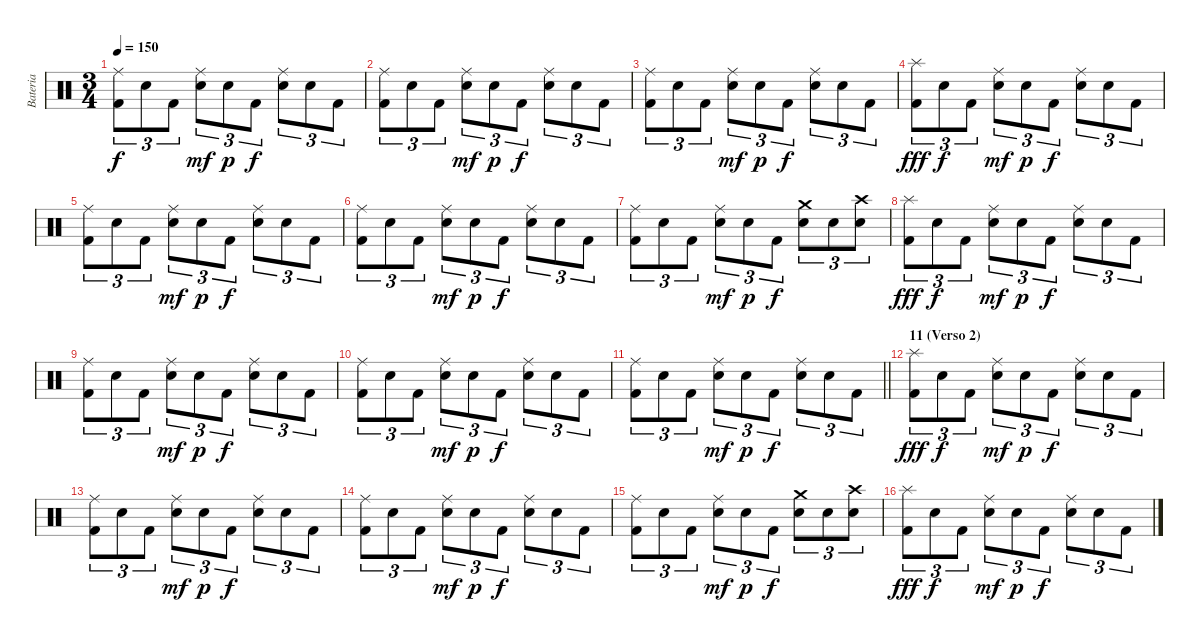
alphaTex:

\track ("Bateria" "Bateria") {instrument percussion}
\staff {score}
\articulation defaults
\ts (3 4)
\tempo 150
\clef neutral
\ks c
("Ride (middle)" "Kick (hit) 2").8{tu (3 2) dy f} "Snare (hit)".8{tu (3 2)} "Kick (hit) 2".8{tu (3 2)} ("Ride (middle)" "Electric Snare (hit)").8{tu (3 2) dy mf} "Electric Snare (hit)".8{tu (3 2) dy p} "Kick (hit) 2".8{tu (3 2) dy f} ("Ride (middle)" "Electric Snare (hit)").8{tu (3 2)} "Snare (hit)".8{tu (3 2)} "Kick (hit) 2".8{tu (3 2)} |
("Ride (middle)" "Kick (hit) 2").8{tu (3 2)} "Snare (hit)".8{tu (3 2)} "Kick (hit) 2".8{tu (3 2)} ("Ride (middle)" "Electric Snare (hit)").8{tu (3 2) dy mf} "Electric Snare (hit)".8{tu (3 2) dy p} "Kick (hit) 2".8{tu (3 2) dy f} ("Ride (middle)" "Electric Snare (hit)").8{tu (3 2)} "Snare (hit)".8{tu (3 2)} "Kick (hit) 2".8{tu (3 2)} |
("Ride (middle)" "Kick (hit) 2").8{tu (3 2)} "Snare (hit)".8{tu (3 2)} "Kick (hit) 2".8{tu (3 2)} ("Ride (middle)" "Electric Snare (hit)").8{tu (3 2) dy mf} "Electric Snare (hit)".8{tu (3 2) dy p} "Kick (hit) 2".8{tu (3 2) dy f} ("Ride (middle)" "Electric Snare (hit)").8{tu (3 2)} "Snare (hit)".8{tu (3 2)} "Kick (hit) 2".8{tu (3 2)} |
("Splash (hit)" "Kick (hit) 2").8{tu (3 2) dy fff} "Snare (hit)".8{tu (3 2) dy f} "Kick (hit) 2".8{tu (3 2)} ("Ride (middle)" "Electric Snare (hit)").8{tu (3 2) dy mf} "Electric Snare (hit)".8{tu (3 2) dy p} "Kick (hit) 2".8{tu (3 2) dy f} ("Ride (middle)" "Electric Snare (hit)").8{tu (3 2)} "Snare (hit)".8{tu (3 2)} "Kick (hit) 2".8{tu (3 2)} |
("Ride (middle)" "Kick (hit) 2").8{tu (3 2)} "Snare (hit)".8{tu (3 2)} "Kick (hit) 2".8{tu (3 2)} ("Ride (middle)" "Electric Snare (hit)").8{tu (3 2) dy mf} "Electric Snare (hit)".8{tu (3 2) dy p} "Kick (hit) 2".8{tu (3 2) dy f} ("Ride (middle)" "Electric Snare (hit)").8{tu (3 2)} "Snare (hit)".8{tu (3 2)} "Kick (hit) 2".8{tu (3 2)} |
("Ride (middle)" "Kick (hit) 2").8{tu (3 2)} "Snare (hit)".8{tu (3 2)} "Kick (hit) 2".8{tu (3 2)} ("Ride (middle)" "Electric Snare (hit)").8{tu (3 2) dy mf} "Electric Snare (hit)".8{tu (3 2) dy p} "Kick (hit) 2".8{tu (3 2) dy f} ("Ride (middle)" "Electric Snare (hit)").8{tu (3 2)} "Snare (hit)".8{tu (3 2)} "Kick (hit) 2".8{tu (3 2)} |
("Ride (middle)" "Kick (hit) 2").8{tu (3 2)} "Snare (hit)".8{tu (3 2)} "Kick (hit) 2".8{tu (3 2)} ("Ride (middle)" "Electric Snare (hit)").8{tu (3 2) dy mf} "Electric Snare (hit)".8{tu (3 2) dy p} "Kick (hit) 2".8{tu (3 2) dy f} ("Crash medium (hit)" "Electric Snare (hit)").8{tu (3 2)} "Snare (hit)".8{tu (3 2)} ("Crash high (hit)" "Electric Snare (hit)").8{tu (3 2)} |
("Splash (hit)" "Kick (hit) 2").8{tu (3 2) dy fff} "Snare (hit)".8{tu (3 2) dy f} "Kick (hit) 2".8{tu (3 2)} ("Ride (middle)" "Electric Snare (hit)").8{tu (3 2) dy mf} "Electric Snare (hit)".8{tu (3 2) dy p} "Kick (hit) 2".8{tu (3 2) dy f} ("Ride (middle)" "Electric Snare (hit)").8{tu (3 2)} "Snare (hit)".8{tu (3 2)} "Kick (hit) 2".8{tu (3 2)} |
("Ride (middle)" "Kick (hit) 2").8{tu (3 2)} "Snare (hit)".8{tu (3 2)} "Kick (hit) 2".8{tu (3 2)} ("Ride (middle)" "Electric Snare (hit)").8{tu (3 2) dy mf} "Electric Snare (hit)".8{tu (3 2) dy p} "Kick (hit) 2".8{tu (3 2) dy f} ("Ride (middle)" "Electric Snare (hit)").8{tu (3 2)} "Snare (hit)".8{tu (3 2)} "Kick (hit) 2".8{tu (3 2)} |
("Ride (middle)" "Kick (hit) 2").8{tu (3 2)} "Snare (hit)".8{tu (3 2)} "Kick (hit) 2".8{tu (3 2)} ("Ride (middle)" "Electric Snare (hit)").8{tu (3 2) dy mf} "Electric Snare (hit)".8{tu (3 2) dy p} "Kick (hit) 2".8{tu (3 2) dy f} ("Ride (middle)" "Electric Snare (hit)").8{tu (3 2)} "Snare (hit)".8{tu (3 2)} "Kick (hit) 2".8{tu (3 2)} |
\barLineRight lightlight
("Ride (middle)" "Kick (hit) 2").8{tu (3 2)} "Snare (hit)".8{tu (3 2)} "Kick (hit) 2".8{tu (3 2)} ("Ride (middle)" "Electric Snare (hit)").8{tu (3 2) dy mf} "Electric Snare (hit)".8{tu (3 2) dy p} "Kick (hit) 2".8{tu (3 2) dy f} ("Ride (middle)" "Electric Snare (hit)").8{tu (3 2)} "Snare (hit)".8{tu (3 2)} "Kick (hit) 2".8{tu (3 2)} |
\section ("" "11 (Verso 2)")
("Splash (hit)" "Kick (hit) 2").8{tu (3 2) dy fff} "Snare (hit)".8{tu (3 2) dy f} "Kick (hit) 2".8{tu (3 2)} ("Ride (middle)" "Electric Snare (hit)").8{tu (3 2) dy mf} "Electric Snare (hit)".8{tu (3 2) dy p} "Kick (hit) 2".8{tu (3 2) dy f} ("Ride (middle)" "Electric Snare (hit)").8{tu (3 2)} "Snare (hit)".8{tu (3 2)} "Kick (hit) 2".8{tu (3 2)} |
("Ride (middle)" "Kick (hit) 2").8{tu (3 2)} "Snare (hit)".8{tu (3 2)} "Kick (hit) 2".8{tu (3 2)} ("Ride (middle)" "Electric Snare (hit)").8{tu (3 2) dy mf} "Electric Snare (hit)".8{tu (3 2) dy p} "Kick (hit) 2".8{tu (3 2) dy f} ("Ride (middle)" "Electric Snare (hit)").8{tu (3 2)} "Snare (hit)".8{tu (3 2)} "Kick (hit) 2".8{tu (3 2)} |
("Ride (middle)" "Kick (hit) 2").8{tu (3 2)} "Snare (hit)".8{tu (3 2)} "Kick (hit) 2".8{tu (3 2)} ("Ride (middle)" "Electric Snare (hit)").8{tu (3 2) dy mf} "Electric Snare (hit)".8{tu (3 2) dy p} "Kick (hit) 2".8{tu (3 2) dy f} ("Ride (middle)" "Electric Snare (hit)").8{tu (3 2)} "Snare (hit)".8{tu (3 2)} "Kick (hit) 2".8{tu (3 2)} |
("Ride (middle)" "Kick (hit) 2").8{tu (3 2)} "Snare (hit)".8{tu (3 2)} "Kick (hit) 2".8{tu (3 2)} ("Ride (middle)" "Electric Snare (hit)").8{tu (3 2) dy mf} "Electric Snare (hit)".8{tu (3 2) dy p} "Kick (hit) 2".8{tu (3 2) dy f} ("Crash medium (hit)" "Electric Snare (hit)").8{tu (3 2)} "Snare (hit)".8{tu (3 2)} ("Crash high (hit)" "Electric Snare (hit)").8{tu (3 2)} |
("Splash (hit)" "Kick (hit) 2").8{tu (3 2) dy fff} "Snare (hit)".8{tu (3 2) dy f} "Kick (hit) 2".8{tu (3 2)} ("Ride (middle)" "Electric Snare (hit)").8{tu (3 2) dy mf} "Electric Snare (hit)".8{tu (3 2) dy p} "Kick (hit) 2".8{tu (3 2) dy f} ("Ride (middle)" "Electric Snare (hit)").8{tu (3 2)} "Snare (hit)".8{tu (3 2)} "Kick (hit) 2".8{tu (3 2)}
